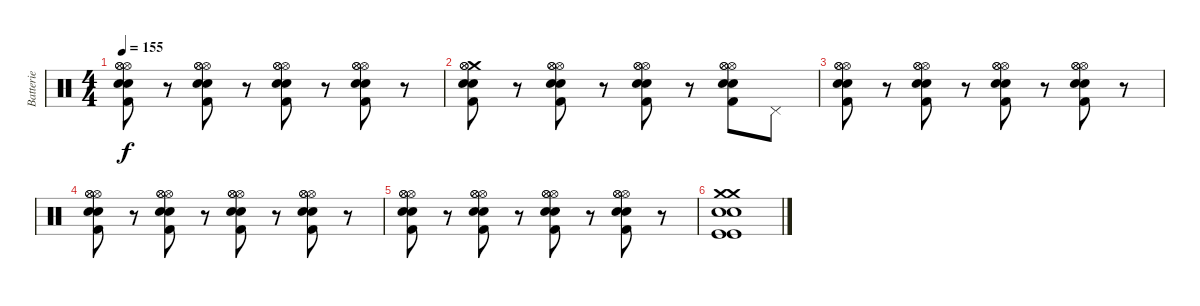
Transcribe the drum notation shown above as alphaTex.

\track ("Batterie" "Batterie") {instrument percussion}
\staff {score}
\articulation defaults
\ts (4 4)
\tempo 155
\clef neutral
\ks c
("Hi-Hat (open)" "Hi-Hat (open)" "Hi-Hat (open)" "Electric Snare (hit)" "Electric Snare (hit)" "Kick (hit) 2").8{dy f} r.8 ("Hi-Hat (open)" "Hi-Hat (open)" "Hi-Hat (open)" "Electric Snare (hit)" "Electric Snare (hit)" "Kick (hit) 2").8 r.8 ("Hi-Hat (open)" "Hi-Hat (open)" "Hi-Hat (open)" "Electric Snare (hit)" "Electric Snare (hit)" "Kick (hit) 2").8 r.8 ("Hi-Hat (open)" "Hi-Hat (open)" "Hi-Hat (open)" "Electric Snare (hit)" "Electric Snare (hit)" "Kick (hit) 2").8 r.8 |
("Crash medium (hit)" "Hi-Hat (open)" "Hi-Hat (open)" "Electric Snare (hit)" "Electric Snare (hit)" "Kick (hit) 2").8 r.8 ("Hi-Hat (open)" "Hi-Hat (open)" "Hi-Hat (open)" "Electric Snare (hit)" "Electric Snare (hit)" "Kick (hit) 2").8 r.8 ("Hi-Hat (open)" "Hi-Hat (open)" "Hi-Hat (open)" "Electric Snare (hit)" "Electric Snare (hit)" "Kick (hit) 2").8 r.8 ("Hi-Hat (open)" "Hi-Hat (open)" "Hi-Hat (open)" "Electric Snare (hit)" "Electric Snare (hit)" "Kick (hit) 2").8 "Pedal Hi-Hat (hit)".8 |
("Hi-Hat (open)" "Hi-Hat (open)" "Hi-Hat (open)" "Electric Snare (hit)" "Electric Snare (hit)" "Kick (hit) 2").8 r.8 ("Hi-Hat (open)" "Hi-Hat (open)" "Hi-Hat (open)" "Electric Snare (hit)" "Electric Snare (hit)" "Kick (hit) 2").8 r.8 ("Hi-Hat (open)" "Hi-Hat (open)" "Hi-Hat (open)" "Electric Snare (hit)" "Electric Snare (hit)" "Kick (hit) 2").8 r.8 ("Hi-Hat (open)" "Hi-Hat (open)" "Hi-Hat (open)" "Electric Snare (hit)" "Electric Snare (hit)" "Kick (hit) 2").8 r.8 |
("Hi-Hat (open)" "Hi-Hat (open)" "Hi-Hat (open)" "Electric Snare (hit)" "Electric Snare (hit)" "Kick (hit) 2").8 r.8 ("Hi-Hat (open)" "Hi-Hat (open)" "Hi-Hat (open)" "Electric Snare (hit)" "Electric Snare (hit)" "Kick (hit) 2").8 r.8 ("Hi-Hat (open)" "Hi-Hat (open)" "Hi-Hat (open)" "Electric Snare (hit)" "Electric Snare (hit)" "Kick (hit) 2").8 r.8 ("Hi-Hat (open)" "Hi-Hat (open)" "Hi-Hat (open)" "Electric Snare (hit)" "Electric Snare (hit)" "Kick (hit) 2").8 r.8 |
("Hi-Hat (open)" "Hi-Hat (open)" "Hi-Hat (open)" "Electric Snare (hit)" "Electric Snare (hit)" "Kick (hit) 2").8 r.8 ("Hi-Hat (open)" "Hi-Hat (open)" "Hi-Hat (open)" "Electric Snare (hit)" "Electric Snare (hit)" "Kick (hit) 2").8 r.8 ("Hi-Hat (open)" "Hi-Hat (open)" "Hi-Hat (open)" "Electric Snare (hit)" "Electric Snare (hit)" "Kick (hit) 2").8 r.8 ("Hi-Hat (open)" "Hi-Hat (open)" "Hi-Hat (open)" "Electric Snare (hit)" "Electric Snare (hit)" "Kick (hit) 2").8 r.8 |
("Crash medium (hit)" "Crash medium (hit)" "Snare (hit) 2" "Snare (hit) 2" "Kick (hit)" "Kick (hit)").1
